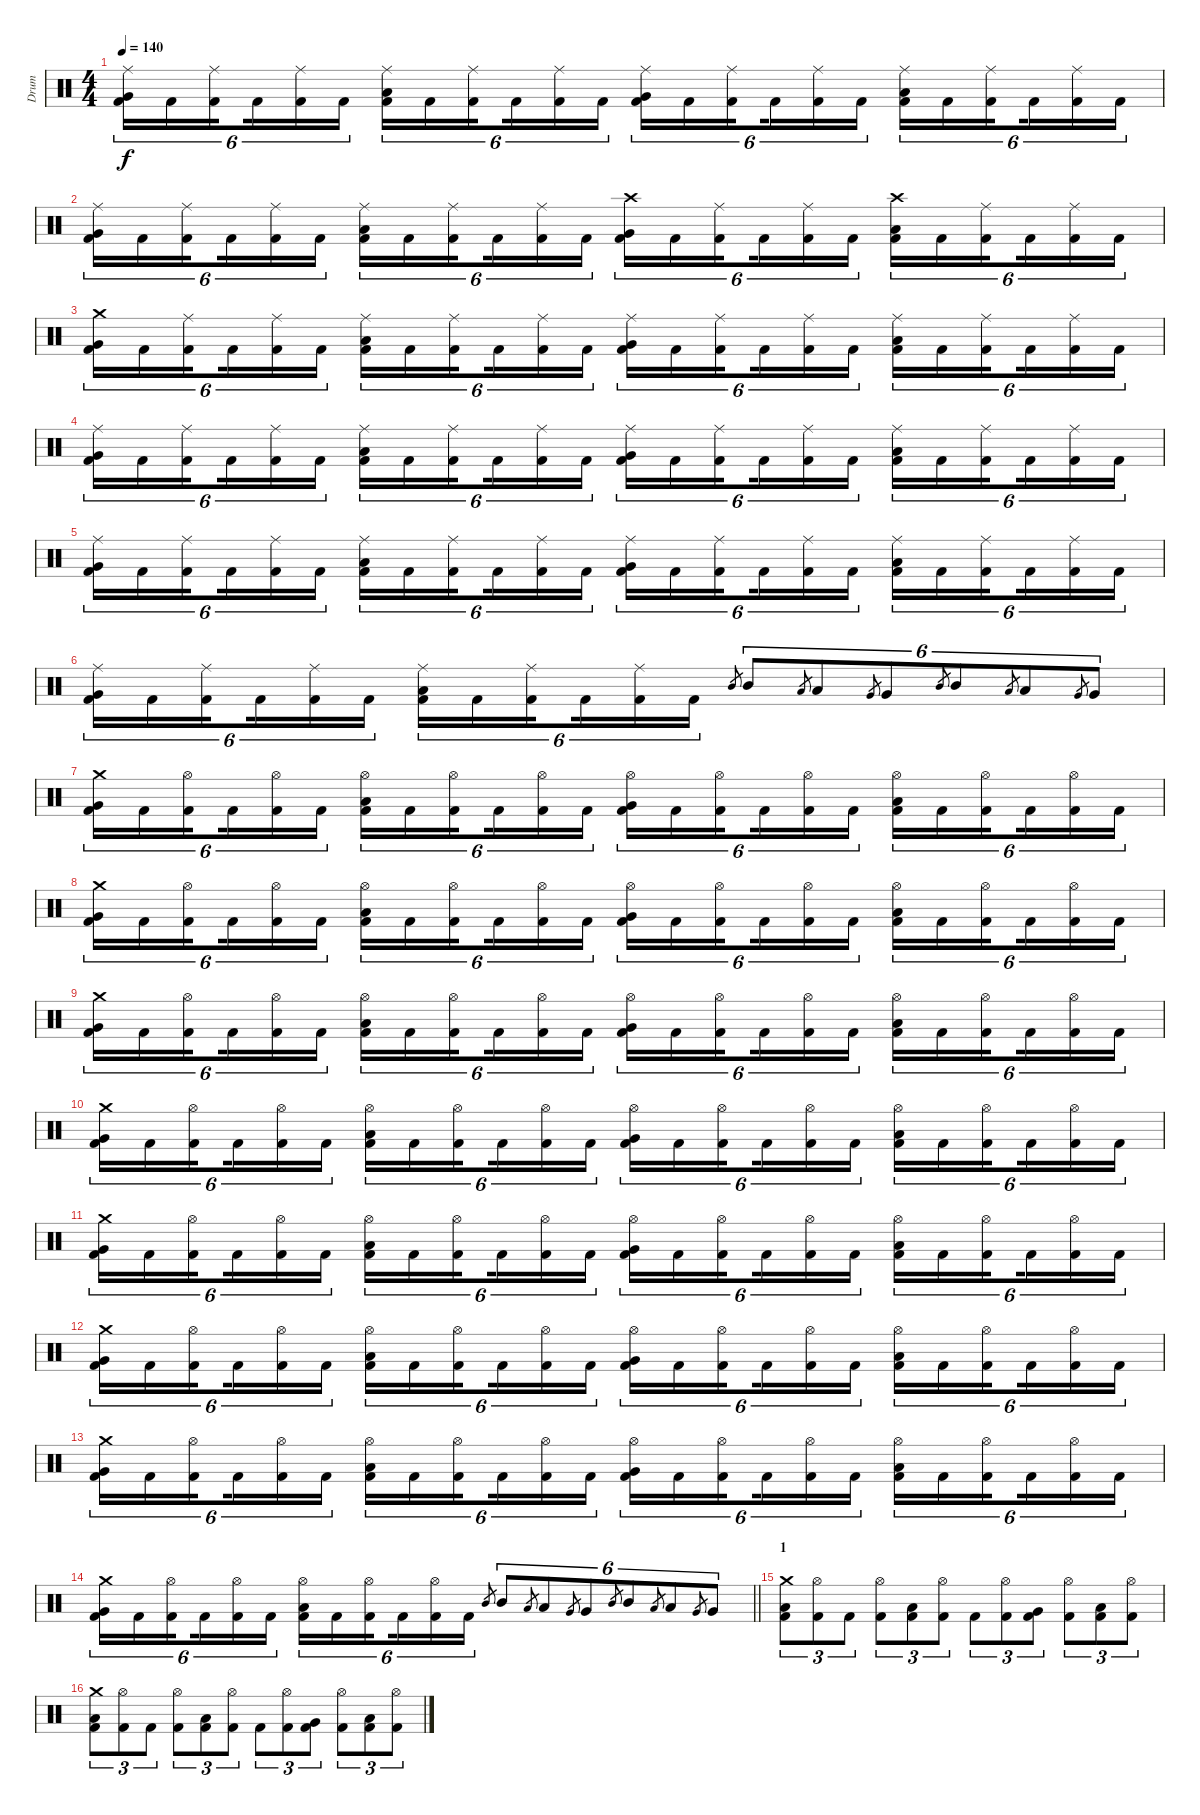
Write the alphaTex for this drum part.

\track ("Drum" "Drum") {instrument percussion}
\staff {score}
\articulation defaults
\ts (4 4)
\tempo 140
\clef neutral
\ks c
("Ride (middle)" "Very Low Tom (hit)" "Kick (hit) 2").16{tu (6 4) dy f} "Kick (hit) 2".16{tu (6 4)} ("Ride (middle)" "Kick (hit) 2").16{tu (6 4) beam splitsecondary} "Kick (hit) 2".16{tu (6 4)} ("Ride (middle)" "Kick (hit) 2").16{tu (6 4)} "Kick (hit) 2".16{tu (6 4)} ("Ride (middle)" "Low Tom (hit)" "Kick (hit) 2").16{tu (6 4)} "Kick (hit) 2".16{tu (6 4)} ("Ride (middle)" "Kick (hit) 2").16{tu (6 4) beam splitsecondary} "Kick (hit) 2".16{tu (6 4)} ("Ride (middle)" "Kick (hit) 2").16{tu (6 4)} "Kick (hit) 2".16{tu (6 4)} ("Ride (middle)" "Very Low Tom (hit)" "Kick (hit) 2").16{tu (6 4)} "Kick (hit) 2".16{tu (6 4)} ("Ride (middle)" "Kick (hit) 2").16{tu (6 4) beam splitsecondary} "Kick (hit) 2".16{tu (6 4)} ("Ride (middle)" "Kick (hit) 2").16{tu (6 4)} "Kick (hit) 2".16{tu (6 4)} ("Ride (middle)" "Low Tom (hit)" "Kick (hit) 2").16{tu (6 4)} "Kick (hit) 2".16{tu (6 4)} ("Ride (middle)" "Kick (hit) 2").16{tu (6 4) beam splitsecondary} "Kick (hit) 2".16{tu (6 4)} ("Ride (middle)" "Kick (hit) 2").16{tu (6 4)} "Kick (hit) 2".16{tu (6 4)} |
("Ride (middle)" "Very Low Tom (hit)" "Kick (hit) 2").16{tu (6 4)} "Kick (hit) 2".16{tu (6 4)} ("Ride (middle)" "Kick (hit) 2").16{tu (6 4) beam splitsecondary} "Kick (hit) 2".16{tu (6 4)} ("Ride (middle)" "Kick (hit) 2").16{tu (6 4)} "Kick (hit) 2".16{tu (6 4)} ("Ride (middle)" "Low Tom (hit)" "Kick (hit) 2").16{tu (6 4)} "Kick (hit) 2".16{tu (6 4)} ("Ride (middle)" "Kick (hit) 2").16{tu (6 4) beam splitsecondary} "Kick (hit) 2".16{tu (6 4)} ("Ride (middle)" "Kick (hit) 2").16{tu (6 4)} "Kick (hit) 2".16{tu (6 4)} ("Crash high (hit)" "Very Low Tom (hit)" "Kick (hit) 2").16{tu (6 4)} "Kick (hit) 2".16{tu (6 4)} ("Ride (middle)" "Kick (hit) 2").16{tu (6 4) beam splitsecondary} "Kick (hit) 2".16{tu (6 4)} ("Ride (middle)" "Kick (hit) 2").16{tu (6 4)} "Kick (hit) 2".16{tu (6 4)} ("Crash high (hit)" "Low Tom (hit)" "Kick (hit) 2").16{tu (6 4)} "Kick (hit) 2".16{tu (6 4)} ("Ride (middle)" "Kick (hit) 2").16{tu (6 4) beam splitsecondary} "Kick (hit) 2".16{tu (6 4)} ("Ride (middle)" "Kick (hit) 2").16{tu (6 4)} "Kick (hit) 2".16{tu (6 4)} |
("Crash medium (hit)" "Very Low Tom (hit)" "Kick (hit) 2").16{tu (6 4)} "Kick (hit) 2".16{tu (6 4)} ("Ride (middle)" "Kick (hit) 2").16{tu (6 4) beam splitsecondary} "Kick (hit) 2".16{tu (6 4)} ("Ride (middle)" "Kick (hit) 2").16{tu (6 4)} "Kick (hit) 2".16{tu (6 4)} ("Ride (middle)" "Low Tom (hit)" "Kick (hit) 2").16{tu (6 4)} "Kick (hit) 2".16{tu (6 4)} ("Ride (middle)" "Kick (hit) 2").16{tu (6 4) beam splitsecondary} "Kick (hit) 2".16{tu (6 4)} ("Ride (middle)" "Kick (hit) 2").16{tu (6 4)} "Kick (hit) 2".16{tu (6 4)} ("Ride (middle)" "Very Low Tom (hit)" "Kick (hit) 2").16{tu (6 4)} "Kick (hit) 2".16{tu (6 4)} ("Ride (middle)" "Kick (hit) 2").16{tu (6 4) beam splitsecondary} "Kick (hit) 2".16{tu (6 4)} ("Ride (middle)" "Kick (hit) 2").16{tu (6 4)} "Kick (hit) 2".16{tu (6 4)} ("Ride (middle)" "Low Tom (hit)" "Kick (hit) 2").16{tu (6 4)} "Kick (hit) 2".16{tu (6 4)} ("Ride (middle)" "Kick (hit) 2").16{tu (6 4) beam splitsecondary} "Kick (hit) 2".16{tu (6 4)} ("Ride (middle)" "Kick (hit) 2").16{tu (6 4)} "Kick (hit) 2".16{tu (6 4)} |
("Ride (middle)" "Very Low Tom (hit)" "Kick (hit) 2").16{tu (6 4)} "Kick (hit) 2".16{tu (6 4)} ("Ride (middle)" "Kick (hit) 2").16{tu (6 4) beam splitsecondary} "Kick (hit) 2".16{tu (6 4)} ("Ride (middle)" "Kick (hit) 2").16{tu (6 4)} "Kick (hit) 2".16{tu (6 4)} ("Ride (middle)" "Low Tom (hit)" "Kick (hit) 2").16{tu (6 4)} "Kick (hit) 2".16{tu (6 4)} ("Ride (middle)" "Kick (hit) 2").16{tu (6 4) beam splitsecondary} "Kick (hit) 2".16{tu (6 4)} ("Ride (middle)" "Kick (hit) 2").16{tu (6 4)} "Kick (hit) 2".16{tu (6 4)} ("Ride (middle)" "Very Low Tom (hit)" "Kick (hit) 2").16{tu (6 4)} "Kick (hit) 2".16{tu (6 4)} ("Ride (middle)" "Kick (hit) 2").16{tu (6 4) beam splitsecondary} "Kick (hit) 2".16{tu (6 4)} ("Ride (middle)" "Kick (hit) 2").16{tu (6 4)} "Kick (hit) 2".16{tu (6 4)} ("Ride (middle)" "Low Tom (hit)" "Kick (hit) 2").16{tu (6 4)} "Kick (hit) 2".16{tu (6 4)} ("Ride (middle)" "Kick (hit) 2").16{tu (6 4) beam splitsecondary} "Kick (hit) 2".16{tu (6 4)} ("Ride (middle)" "Kick (hit) 2").16{tu (6 4)} "Kick (hit) 2".16{tu (6 4)} |
("Ride (middle)" "Very Low Tom (hit)" "Kick (hit) 2").16{tu (6 4)} "Kick (hit) 2".16{tu (6 4)} ("Ride (middle)" "Kick (hit) 2").16{tu (6 4) beam splitsecondary} "Kick (hit) 2".16{tu (6 4)} ("Ride (middle)" "Kick (hit) 2").16{tu (6 4)} "Kick (hit) 2".16{tu (6 4)} ("Ride (middle)" "Low Tom (hit)" "Kick (hit) 2").16{tu (6 4)} "Kick (hit) 2".16{tu (6 4)} ("Ride (middle)" "Kick (hit) 2").16{tu (6 4) beam splitsecondary} "Kick (hit) 2".16{tu (6 4)} ("Ride (middle)" "Kick (hit) 2").16{tu (6 4)} "Kick (hit) 2".16{tu (6 4)} ("Ride (middle)" "Very Low Tom (hit)" "Kick (hit) 2").16{tu (6 4)} "Kick (hit) 2".16{tu (6 4)} ("Ride (middle)" "Kick (hit) 2").16{tu (6 4) beam splitsecondary} "Kick (hit) 2".16{tu (6 4)} ("Ride (middle)" "Kick (hit) 2").16{tu (6 4)} "Kick (hit) 2".16{tu (6 4)} ("Ride (middle)" "Low Tom (hit)" "Kick (hit) 2").16{tu (6 4)} "Kick (hit) 2".16{tu (6 4)} ("Ride (middle)" "Kick (hit) 2").16{tu (6 4) beam splitsecondary} "Kick (hit) 2".16{tu (6 4)} ("Ride (middle)" "Kick (hit) 2").16{tu (6 4)} "Kick (hit) 2".16{tu (6 4)} |
("Ride (middle)" "Very Low Tom (hit)" "Kick (hit) 2").16{tu (6 4)} "Kick (hit) 2".16{tu (6 4)} ("Ride (middle)" "Kick (hit) 2").16{tu (6 4) beam splitsecondary} "Kick (hit) 2".16{tu (6 4)} ("Ride (middle)" "Kick (hit) 2").16{tu (6 4)} "Kick (hit) 2".16{tu (6 4)} ("Ride (middle)" "Low Tom (hit)" "Kick (hit) 2").16{tu (6 4)} "Kick (hit) 2".16{tu (6 4)} ("Ride (middle)" "Kick (hit) 2").16{tu (6 4) beam splitsecondary} "Kick (hit) 2".16{tu (6 4)} ("Ride (middle)" "Kick (hit) 2").16{tu (6 4)} "Kick (hit) 2".16{tu (6 4)} "Mid Tom (hit)".8{gr} "Mid Tom (hit)".8{tu (6 4)} "Low Tom (hit)".8{gr} "Low Tom (hit)".8{tu (6 4)} "Very Low Tom (hit)".8{gr} "Very Low Tom (hit)".8{tu (6 4)} "Mid Tom (hit)".8{gr} "Mid Tom (hit)".8{tu (6 4)} "Low Tom (hit)".8{gr} "Low Tom (hit)".8{tu (6 4)} "Very Low Tom (hit)".8{gr} "Very Low Tom (hit)".8{tu (6 4)} |
("Crash medium (hit)" "Very Low Tom (hit)" "Kick (hit) 2").16{tu (6 4)} "Kick (hit) 2".16{tu (6 4)} ("Hi-Hat (open)" "Kick (hit) 2").16{tu (6 4) beam splitsecondary} "Kick (hit) 2".16{tu (6 4)} ("Hi-Hat (open)" "Kick (hit) 2").16{tu (6 4)} "Kick (hit) 2".16{tu (6 4)} ("Hi-Hat (open)" "Low Tom (hit)" "Kick (hit) 2").16{tu (6 4)} "Kick (hit) 2".16{tu (6 4)} ("Hi-Hat (open)" "Kick (hit) 2").16{tu (6 4) beam splitsecondary} "Kick (hit) 2".16{tu (6 4)} ("Hi-Hat (open)" "Kick (hit) 2").16{tu (6 4)} "Kick (hit) 2".16{tu (6 4)} ("Hi-Hat (open)" "Very Low Tom (hit)" "Kick (hit) 2").16{tu (6 4)} "Kick (hit) 2".16{tu (6 4)} ("Hi-Hat (open)" "Kick (hit) 2").16{tu (6 4) beam splitsecondary} "Kick (hit) 2".16{tu (6 4)} ("Hi-Hat (open)" "Kick (hit) 2").16{tu (6 4)} "Kick (hit) 2".16{tu (6 4)} ("Hi-Hat (open)" "Low Tom (hit)" "Kick (hit) 2").16{tu (6 4)} "Kick (hit) 2".16{tu (6 4)} ("Hi-Hat (open)" "Kick (hit) 2").16{tu (6 4) beam splitsecondary} "Kick (hit) 2".16{tu (6 4)} ("Hi-Hat (open)" "Kick (hit) 2").16{tu (6 4)} "Kick (hit) 2".16{tu (6 4)} |
("Crash medium (hit)" "Very Low Tom (hit)" "Kick (hit) 2").16{tu (6 4)} "Kick (hit) 2".16{tu (6 4)} ("Hi-Hat (open)" "Kick (hit) 2").16{tu (6 4) beam splitsecondary} "Kick (hit) 2".16{tu (6 4)} ("Hi-Hat (open)" "Kick (hit) 2").16{tu (6 4)} "Kick (hit) 2".16{tu (6 4)} ("Hi-Hat (open)" "Low Tom (hit)" "Kick (hit) 2").16{tu (6 4)} "Kick (hit) 2".16{tu (6 4)} ("Hi-Hat (open)" "Kick (hit) 2").16{tu (6 4) beam splitsecondary} "Kick (hit) 2".16{tu (6 4)} ("Hi-Hat (open)" "Kick (hit) 2").16{tu (6 4)} "Kick (hit) 2".16{tu (6 4)} ("Hi-Hat (open)" "Very Low Tom (hit)" "Kick (hit) 2").16{tu (6 4)} "Kick (hit) 2".16{tu (6 4)} ("Hi-Hat (open)" "Kick (hit) 2").16{tu (6 4) beam splitsecondary} "Kick (hit) 2".16{tu (6 4)} ("Hi-Hat (open)" "Kick (hit) 2").16{tu (6 4)} "Kick (hit) 2".16{tu (6 4)} ("Hi-Hat (open)" "Low Tom (hit)" "Kick (hit) 2").16{tu (6 4)} "Kick (hit) 2".16{tu (6 4)} ("Hi-Hat (open)" "Kick (hit) 2").16{tu (6 4) beam splitsecondary} "Kick (hit) 2".16{tu (6 4)} ("Hi-Hat (open)" "Kick (hit) 2").16{tu (6 4)} "Kick (hit) 2".16{tu (6 4)} |
("Crash medium (hit)" "Very Low Tom (hit)" "Kick (hit) 2").16{tu (6 4)} "Kick (hit) 2".16{tu (6 4)} ("Hi-Hat (open)" "Kick (hit) 2").16{tu (6 4) beam splitsecondary} "Kick (hit) 2".16{tu (6 4)} ("Hi-Hat (open)" "Kick (hit) 2").16{tu (6 4)} "Kick (hit) 2".16{tu (6 4)} ("Hi-Hat (open)" "Low Tom (hit)" "Kick (hit) 2").16{tu (6 4)} "Kick (hit) 2".16{tu (6 4)} ("Hi-Hat (open)" "Kick (hit) 2").16{tu (6 4) beam splitsecondary} "Kick (hit) 2".16{tu (6 4)} ("Hi-Hat (open)" "Kick (hit) 2").16{tu (6 4)} "Kick (hit) 2".16{tu (6 4)} ("Hi-Hat (open)" "Very Low Tom (hit)" "Kick (hit) 2").16{tu (6 4)} "Kick (hit) 2".16{tu (6 4)} ("Hi-Hat (open)" "Kick (hit) 2").16{tu (6 4) beam splitsecondary} "Kick (hit) 2".16{tu (6 4)} ("Hi-Hat (open)" "Kick (hit) 2").16{tu (6 4)} "Kick (hit) 2".16{tu (6 4)} ("Hi-Hat (open)" "Low Tom (hit)" "Kick (hit) 2").16{tu (6 4)} "Kick (hit) 2".16{tu (6 4)} ("Hi-Hat (open)" "Kick (hit) 2").16{tu (6 4) beam splitsecondary} "Kick (hit) 2".16{tu (6 4)} ("Hi-Hat (open)" "Kick (hit) 2").16{tu (6 4)} "Kick (hit) 2".16{tu (6 4)} |
("Crash medium (hit)" "Very Low Tom (hit)" "Kick (hit) 2").16{tu (6 4)} "Kick (hit) 2".16{tu (6 4)} ("Hi-Hat (open)" "Kick (hit) 2").16{tu (6 4) beam splitsecondary} "Kick (hit) 2".16{tu (6 4)} ("Hi-Hat (open)" "Kick (hit) 2").16{tu (6 4)} "Kick (hit) 2".16{tu (6 4)} ("Hi-Hat (open)" "Low Tom (hit)" "Kick (hit) 2").16{tu (6 4)} "Kick (hit) 2".16{tu (6 4)} ("Hi-Hat (open)" "Kick (hit) 2").16{tu (6 4) beam splitsecondary} "Kick (hit) 2".16{tu (6 4)} ("Hi-Hat (open)" "Kick (hit) 2").16{tu (6 4)} "Kick (hit) 2".16{tu (6 4)} ("Hi-Hat (open)" "Very Low Tom (hit)" "Kick (hit) 2").16{tu (6 4)} "Kick (hit) 2".16{tu (6 4)} ("Hi-Hat (open)" "Kick (hit) 2").16{tu (6 4) beam splitsecondary} "Kick (hit) 2".16{tu (6 4)} ("Hi-Hat (open)" "Kick (hit) 2").16{tu (6 4)} "Kick (hit) 2".16{tu (6 4)} ("Hi-Hat (open)" "Low Tom (hit)" "Kick (hit) 2").16{tu (6 4)} "Kick (hit) 2".16{tu (6 4)} ("Hi-Hat (open)" "Kick (hit) 2").16{tu (6 4) beam splitsecondary} "Kick (hit) 2".16{tu (6 4)} ("Hi-Hat (open)" "Kick (hit) 2").16{tu (6 4)} "Kick (hit) 2".16{tu (6 4)} |
("Crash medium (hit)" "Very Low Tom (hit)" "Kick (hit) 2").16{tu (6 4)} "Kick (hit) 2".16{tu (6 4)} ("Hi-Hat (open)" "Kick (hit) 2").16{tu (6 4) beam splitsecondary} "Kick (hit) 2".16{tu (6 4)} ("Hi-Hat (open)" "Kick (hit) 2").16{tu (6 4)} "Kick (hit) 2".16{tu (6 4)} ("Hi-Hat (open)" "Low Tom (hit)" "Kick (hit) 2").16{tu (6 4)} "Kick (hit) 2".16{tu (6 4)} ("Hi-Hat (open)" "Kick (hit) 2").16{tu (6 4) beam splitsecondary} "Kick (hit) 2".16{tu (6 4)} ("Hi-Hat (open)" "Kick (hit) 2").16{tu (6 4)} "Kick (hit) 2".16{tu (6 4)} ("Hi-Hat (open)" "Very Low Tom (hit)" "Kick (hit) 2").16{tu (6 4)} "Kick (hit) 2".16{tu (6 4)} ("Hi-Hat (open)" "Kick (hit) 2").16{tu (6 4) beam splitsecondary} "Kick (hit) 2".16{tu (6 4)} ("Hi-Hat (open)" "Kick (hit) 2").16{tu (6 4)} "Kick (hit) 2".16{tu (6 4)} ("Hi-Hat (open)" "Low Tom (hit)" "Kick (hit) 2").16{tu (6 4)} "Kick (hit) 2".16{tu (6 4)} ("Hi-Hat (open)" "Kick (hit) 2").16{tu (6 4) beam splitsecondary} "Kick (hit) 2".16{tu (6 4)} ("Hi-Hat (open)" "Kick (hit) 2").16{tu (6 4)} "Kick (hit) 2".16{tu (6 4)} |
("Crash medium (hit)" "Very Low Tom (hit)" "Kick (hit) 2").16{tu (6 4)} "Kick (hit) 2".16{tu (6 4)} ("Hi-Hat (open)" "Kick (hit) 2").16{tu (6 4) beam splitsecondary} "Kick (hit) 2".16{tu (6 4)} ("Hi-Hat (open)" "Kick (hit) 2").16{tu (6 4)} "Kick (hit) 2".16{tu (6 4)} ("Hi-Hat (open)" "Low Tom (hit)" "Kick (hit) 2").16{tu (6 4)} "Kick (hit) 2".16{tu (6 4)} ("Hi-Hat (open)" "Kick (hit) 2").16{tu (6 4) beam splitsecondary} "Kick (hit) 2".16{tu (6 4)} ("Hi-Hat (open)" "Kick (hit) 2").16{tu (6 4)} "Kick (hit) 2".16{tu (6 4)} ("Hi-Hat (open)" "Very Low Tom (hit)" "Kick (hit) 2").16{tu (6 4)} "Kick (hit) 2".16{tu (6 4)} ("Hi-Hat (open)" "Kick (hit) 2").16{tu (6 4) beam splitsecondary} "Kick (hit) 2".16{tu (6 4)} ("Hi-Hat (open)" "Kick (hit) 2").16{tu (6 4)} "Kick (hit) 2".16{tu (6 4)} ("Hi-Hat (open)" "Low Tom (hit)" "Kick (hit) 2").16{tu (6 4)} "Kick (hit) 2".16{tu (6 4)} ("Hi-Hat (open)" "Kick (hit) 2").16{tu (6 4) beam splitsecondary} "Kick (hit) 2".16{tu (6 4)} ("Hi-Hat (open)" "Kick (hit) 2").16{tu (6 4)} "Kick (hit) 2".16{tu (6 4)} |
("Crash medium (hit)" "Very Low Tom (hit)" "Kick (hit) 2").16{tu (6 4)} "Kick (hit) 2".16{tu (6 4)} ("Hi-Hat (open)" "Kick (hit) 2").16{tu (6 4) beam splitsecondary} "Kick (hit) 2".16{tu (6 4)} ("Hi-Hat (open)" "Kick (hit) 2").16{tu (6 4)} "Kick (hit) 2".16{tu (6 4)} ("Hi-Hat (open)" "Low Tom (hit)" "Kick (hit) 2").16{tu (6 4)} "Kick (hit) 2".16{tu (6 4)} ("Hi-Hat (open)" "Kick (hit) 2").16{tu (6 4) beam splitsecondary} "Kick (hit) 2".16{tu (6 4)} ("Hi-Hat (open)" "Kick (hit) 2").16{tu (6 4)} "Kick (hit) 2".16{tu (6 4)} ("Hi-Hat (open)" "Very Low Tom (hit)" "Kick (hit) 2").16{tu (6 4)} "Kick (hit) 2".16{tu (6 4)} ("Hi-Hat (open)" "Kick (hit) 2").16{tu (6 4) beam splitsecondary} "Kick (hit) 2".16{tu (6 4)} ("Hi-Hat (open)" "Kick (hit) 2").16{tu (6 4)} "Kick (hit) 2".16{tu (6 4)} ("Hi-Hat (open)" "Low Tom (hit)" "Kick (hit) 2").16{tu (6 4)} "Kick (hit) 2".16{tu (6 4)} ("Hi-Hat (open)" "Kick (hit) 2").16{tu (6 4) beam splitsecondary} "Kick (hit) 2".16{tu (6 4)} ("Hi-Hat (open)" "Kick (hit) 2").16{tu (6 4)} "Kick (hit) 2".16{tu (6 4)} |
\barLineRight lightlight
("Crash medium (hit)" "Very Low Tom (hit)" "Kick (hit) 2").16{tu (6 4)} "Kick (hit) 2".16{tu (6 4)} ("Hi-Hat (open)" "Kick (hit) 2").16{tu (6 4) beam splitsecondary} "Kick (hit) 2".16{tu (6 4)} ("Hi-Hat (open)" "Kick (hit) 2").16{tu (6 4)} "Kick (hit) 2".16{tu (6 4)} ("Hi-Hat (open)" "Low Tom (hit)" "Kick (hit) 2").16{tu (6 4)} "Kick (hit) 2".16{tu (6 4)} ("Hi-Hat (open)" "Kick (hit) 2").16{tu (6 4) beam splitsecondary} "Kick (hit) 2".16{tu (6 4)} ("Hi-Hat (open)" "Kick (hit) 2").16{tu (6 4)} "Kick (hit) 2".16{tu (6 4)} "Mid Tom (hit)".8{gr} "Mid Tom (hit)".8{tu (6 4)} "Low Tom (hit)".8{gr} "Low Tom (hit)".8{tu (6 4)} "Very Low Tom (hit)".8{gr} "Very Low Tom (hit)".8{tu (6 4)} "Mid Tom (hit)".8{gr} "Mid Tom (hit)".8{tu (6 4)} "Low Tom (hit)".8{gr} "Low Tom (hit)".8{tu (6 4)} "Very Low Tom (hit)".8{gr} "Very Low Tom (hit)".8{tu (6 4)} |
\section ("" "1")
("Crash medium (hit)" "Low Tom (hit)" "Kick (hit) 2").8{tu (3 2)} ("Hi-Hat (open)" "Kick (hit) 2").8{tu (3 2)} "Kick (hit) 2".8{tu (3 2)} ("Hi-Hat (open)" "Kick (hit) 2").8{tu (3 2)} ("Low Tom (hit)" "Kick (hit) 2").8{tu (3 2)} ("Hi-Hat (open)" "Kick (hit) 2").8{tu (3 2)} "Kick (hit) 2".8{tu (3 2)} ("Hi-Hat (open)" "Kick (hit) 2").8{tu (3 2)} ("Very Low Tom (hit)" "Kick (hit) 2").8{tu (3 2)} ("Hi-Hat (open)" "Kick (hit) 2").8{tu (3 2)} ("Low Floor Tom (hit)" "Kick (hit) 2").8{tu (3 2)} ("Hi-Hat (open)" "Kick (hit) 2").8{tu (3 2)} |
("Crash medium (hit)" "Low Tom (hit)" "Kick (hit) 2").8{tu (3 2)} ("Hi-Hat (open)" "Kick (hit) 2").8{tu (3 2)} "Kick (hit) 2".8{tu (3 2)} ("Hi-Hat (open)" "Kick (hit) 2").8{tu (3 2)} ("Low Tom (hit)" "Kick (hit) 2").8{tu (3 2)} ("Hi-Hat (open)" "Kick (hit) 2").8{tu (3 2)} "Kick (hit) 2".8{tu (3 2)} ("Hi-Hat (open)" "Kick (hit) 2").8{tu (3 2)} ("Very Low Tom (hit)" "Kick (hit) 2").8{tu (3 2)} ("Hi-Hat (open)" "Kick (hit) 2").8{tu (3 2)} ("Low Floor Tom (hit)" "Kick (hit) 2").8{tu (3 2)} ("Hi-Hat (open)" "Kick (hit) 2").8{tu (3 2)}
